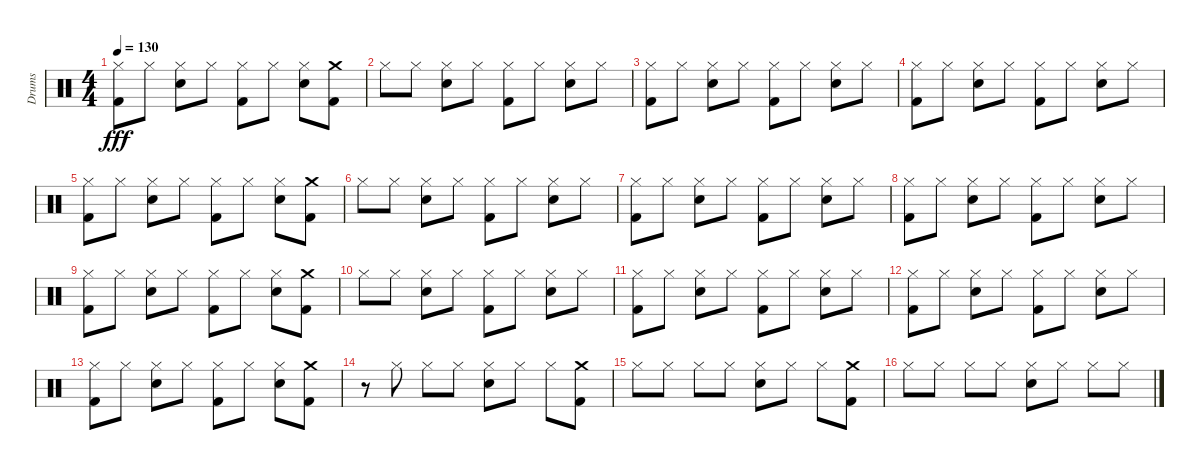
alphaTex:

\track ("Drums" "Drums") {instrument percussion}
\staff {score}
\articulation defaults
\ts (4 4)
\tempo 130
\clef neutral
\ks c
("Kick (hit) 2" "Hi-Hat (closed)").8{dy fff} "Hi-Hat (closed)".8 ("Snare (hit) 2" "Hi-Hat (closed)").8 "Hi-Hat (closed)".8 ("Kick (hit) 2" "Hi-Hat (closed)").8 "Hi-Hat (closed)".8 ("Snare (hit) 2" "Hi-Hat (closed)").8 ("Crash medium (hit)" "Kick (hit) 2").8 |
"Hi-Hat (closed)".8 "Hi-Hat (closed)".8 ("Snare (hit) 2" "Hi-Hat (closed)").8 "Hi-Hat (closed)".8 ("Kick (hit) 2" "Hi-Hat (closed)").8 "Hi-Hat (closed)".8 ("Snare (hit) 2" "Hi-Hat (closed)").8 "Hi-Hat (closed)".8 |
("Kick (hit) 2" "Hi-Hat (closed)").8 "Hi-Hat (closed)".8 ("Snare (hit) 2" "Hi-Hat (closed)").8 "Hi-Hat (closed)".8 ("Kick (hit) 2" "Hi-Hat (closed)").8 "Hi-Hat (closed)".8 ("Snare (hit) 2" "Hi-Hat (closed)").8 "Hi-Hat (closed)".8 |
("Kick (hit) 2" "Hi-Hat (closed)").8 "Hi-Hat (closed)".8 ("Snare (hit) 2" "Hi-Hat (closed)").8 "Hi-Hat (closed)".8 ("Kick (hit) 2" "Hi-Hat (closed)").8 "Hi-Hat (closed)".8 ("Snare (hit) 2" "Hi-Hat (closed)").8 "Hi-Hat (closed)".8 |
("Kick (hit) 2" "Hi-Hat (closed)").8 "Hi-Hat (closed)".8 ("Snare (hit) 2" "Hi-Hat (closed)").8 "Hi-Hat (closed)".8 ("Kick (hit) 2" "Hi-Hat (closed)").8 "Hi-Hat (closed)".8 ("Snare (hit) 2" "Hi-Hat (closed)").8 ("Kick (hit) 2" "Crash medium (hit)").8 |
"Hi-Hat (closed)".8 "Hi-Hat (closed)".8 ("Snare (hit) 2" "Hi-Hat (closed)").8 "Hi-Hat (closed)".8 ("Kick (hit) 2" "Hi-Hat (closed)").8 "Hi-Hat (closed)".8 ("Snare (hit) 2" "Hi-Hat (closed)").8 "Hi-Hat (closed)".8 |
("Kick (hit) 2" "Hi-Hat (closed)").8 "Hi-Hat (closed)".8 ("Snare (hit) 2" "Hi-Hat (closed)").8 "Hi-Hat (closed)".8 ("Kick (hit) 2" "Hi-Hat (closed)").8 "Hi-Hat (closed)".8 ("Snare (hit) 2" "Hi-Hat (closed)").8 "Hi-Hat (closed)".8 |
("Kick (hit) 2" "Hi-Hat (closed)").8 "Hi-Hat (closed)".8 ("Snare (hit) 2" "Hi-Hat (closed)").8 "Hi-Hat (closed)".8 ("Kick (hit) 2" "Hi-Hat (closed)").8 "Hi-Hat (closed)".8 ("Snare (hit) 2" "Hi-Hat (closed)").8 "Hi-Hat (closed)".8 |
("Kick (hit) 2" "Hi-Hat (closed)").8 "Hi-Hat (closed)".8 ("Snare (hit) 2" "Hi-Hat (closed)").8 "Hi-Hat (closed)".8 ("Kick (hit) 2" "Hi-Hat (closed)").8 "Hi-Hat (closed)".8 ("Snare (hit) 2" "Hi-Hat (closed)").8 ("Kick (hit) 2" "Crash medium (hit)").8 |
"Hi-Hat (closed)".8 "Hi-Hat (closed)".8 ("Snare (hit) 2" "Hi-Hat (closed)").8 "Hi-Hat (closed)".8 ("Kick (hit) 2" "Hi-Hat (closed)").8 "Hi-Hat (closed)".8 ("Snare (hit) 2" "Hi-Hat (closed)").8 "Hi-Hat (closed)".8 |
("Kick (hit) 2" "Hi-Hat (closed)").8 "Hi-Hat (closed)".8 ("Snare (hit) 2" "Hi-Hat (closed)").8 "Hi-Hat (closed)".8 ("Kick (hit) 2" "Hi-Hat (closed)").8 "Hi-Hat (closed)".8 ("Snare (hit) 2" "Hi-Hat (closed)").8 "Hi-Hat (closed)".8 |
("Kick (hit) 2" "Hi-Hat (closed)").8 "Hi-Hat (closed)".8 ("Snare (hit) 2" "Hi-Hat (closed)").8 "Hi-Hat (closed)".8 ("Kick (hit) 2" "Hi-Hat (closed)").8 "Hi-Hat (closed)".8 ("Snare (hit) 2" "Hi-Hat (closed)").8 "Hi-Hat (closed)".8 |
("Kick (hit) 2" "Hi-Hat (closed)").8 "Hi-Hat (closed)".8 ("Snare (hit) 2" "Hi-Hat (closed)").8 "Hi-Hat (closed)".8 ("Kick (hit) 2" "Hi-Hat (closed)").8 "Hi-Hat (closed)".8 ("Snare (hit) 2" "Hi-Hat (closed)").8 ("Kick (hit) 2" "Crash medium (hit)").8 |
r.8 "Hi-Hat (closed)".8 "Hi-Hat (closed)".8 "Hi-Hat (closed)".8 ("Snare (hit) 2" "Hi-Hat (closed)").8 "Hi-Hat (closed)".8 "Hi-Hat (closed)".8 ("Kick (hit) 2" "Crash medium (hit)").8 |
"Hi-Hat (closed)".8 "Hi-Hat (closed)".8 "Hi-Hat (closed)".8 "Hi-Hat (closed)".8 ("Snare (hit) 2" "Hi-Hat (closed)").8 "Hi-Hat (closed)".8 "Hi-Hat (closed)".8 ("Crash medium (hit)" "Kick (hit) 2").8 |
"Hi-Hat (closed)".8 "Hi-Hat (closed)".8 "Hi-Hat (closed)".8 "Hi-Hat (closed)".8 ("Snare (hit) 2" "Hi-Hat (closed)").8 "Hi-Hat (closed)".8 "Hi-Hat (closed)".8 "Hi-Hat (closed)".8
